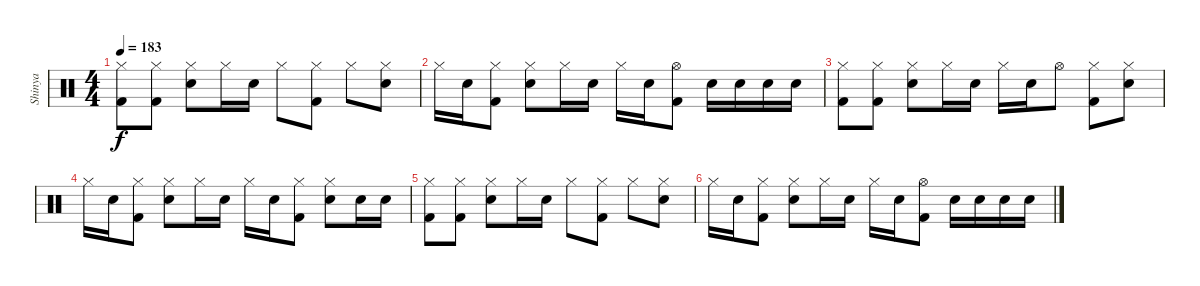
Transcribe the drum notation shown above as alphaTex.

\track ("Shinya" "Shinya") {instrument percussion}
\staff {score}
\articulation defaults
\ts (4 4)
\tempo 183
\clef neutral
\ks c
("Hi-Hat (closed)" "Kick (hit) 2").8{dy f volume 7} ("Hi-Hat (closed)" "Kick (hit) 2").8 ("Hi-Hat (closed)" "Snare (hit) 2").8 "Hi-Hat (closed)".16 "Snare (hit) 2".16 "Hi-Hat (closed)".8 ("Hi-Hat (closed)" "Kick (hit) 2").8 "Hi-Hat (closed)".8 ("Hi-Hat (closed)" "Snare (hit) 2").8 |
"Hi-Hat (closed)".16 "Snare (hit) 2".16 ("Hi-Hat (closed)" "Kick (hit) 2").8 ("Hi-Hat (closed)" "Snare (hit) 2").8 "Hi-Hat (closed)".16 "Snare (hit) 2".16 "Hi-Hat (closed)".16 "Snare (hit) 2".16 ("Hi-Hat (open)" "Kick (hit) 2").8 "Snare (hit) 2".16 "Snare (hit) 2".16 "Snare (hit) 2".16 "Snare (hit) 2".16 |
("Hi-Hat (closed)" "Kick (hit) 2").8{volume 4} ("Hi-Hat (closed)" "Kick (hit) 2").8 ("Hi-Hat (closed)" "Snare (hit) 2").8 "Hi-Hat (closed)".16 "Snare (hit) 2".16 "Hi-Hat (closed)".16 "Snare (hit) 2".16 "Hi-Hat (open)".8 ("Hi-Hat (closed)" "Kick (hit) 2").8 ("Hi-Hat (closed)" "Snare (hit) 2").8 |
"Hi-Hat (closed)".16 "Snare (hit) 2".16 ("Hi-Hat (closed)" "Kick (hit) 2").8 ("Hi-Hat (closed)" "Snare (hit) 2").8 "Hi-Hat (closed)".16 "Snare (hit) 2".16 "Hi-Hat (closed)".16 "Snare (hit) 2".16 ("Hi-Hat (closed)" "Kick (hit) 2").8 ("Hi-Hat (closed)" "Snare (hit) 2").8 "Snare (hit) 2".16 "Snare (hit) 2".16 |
("Hi-Hat (closed)" "Kick (hit) 2").8{volume 0} ("Hi-Hat (closed)" "Kick (hit) 2").8 ("Hi-Hat (closed)" "Snare (hit) 2").8 "Hi-Hat (closed)".16 "Snare (hit) 2".16 "Hi-Hat (closed)".8 ("Hi-Hat (closed)" "Kick (hit) 2").8 "Hi-Hat (closed)".8 ("Hi-Hat (closed)" "Snare (hit) 2").8 |
"Hi-Hat (closed)".16 "Snare (hit) 2".16 ("Hi-Hat (closed)" "Kick (hit) 2").8 ("Hi-Hat (closed)" "Snare (hit) 2").8 "Hi-Hat (closed)".16 "Snare (hit) 2".16 "Hi-Hat (closed)".16 "Snare (hit) 2".16 ("Hi-Hat (open)" "Kick (hit) 2").8 "Snare (hit) 2".16 "Snare (hit) 2".16 "Snare (hit) 2".16 "Snare (hit) 2".16
